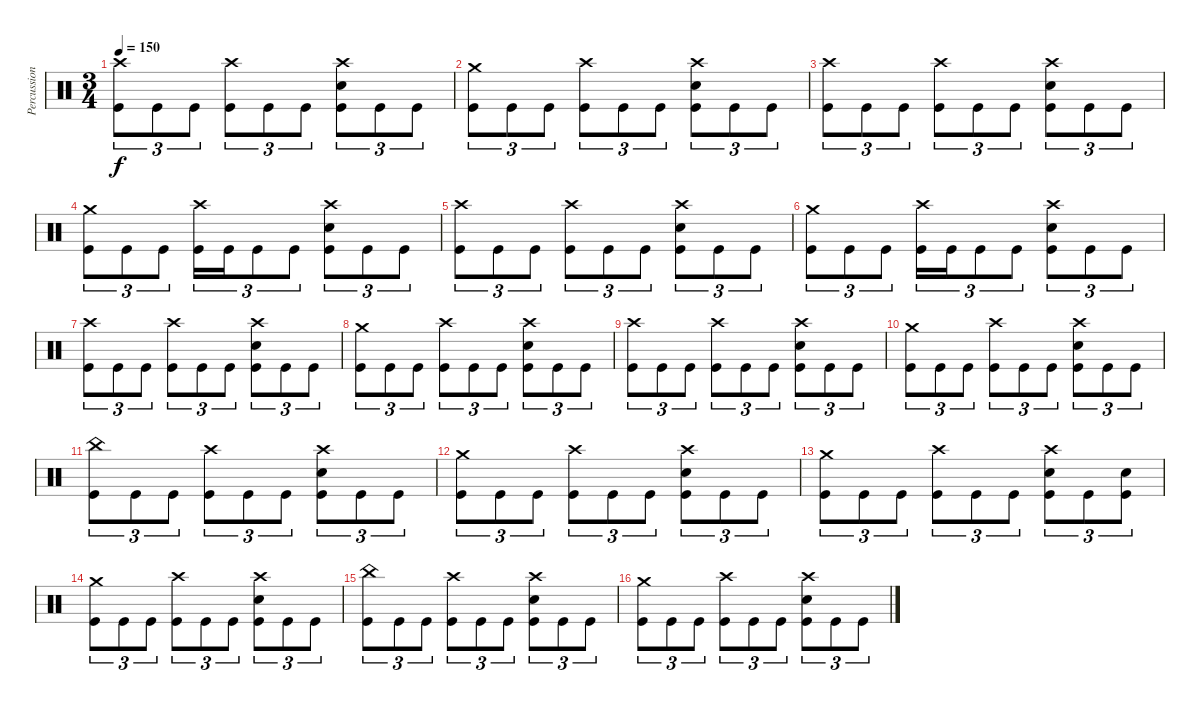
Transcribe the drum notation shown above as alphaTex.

\track ("Percussions" "Percussion") {instrument percussion}
\staff {score}
\articulation defaults
\ts (3 4)
\tempo 150
\clef neutral
\ks c
("Crash high (hit)" "Kick (hit)").8{tu (3 2) dy f} "Kick (hit)".8{tu (3 2)} "Kick (hit)".8{tu (3 2)} ("Crash high (hit)" "Kick (hit)").8{tu (3 2)} "Kick (hit)".8{tu (3 2)} "Kick (hit)".8{tu (3 2)} ("Crash high (hit)" "Snare (hit) 2" "Kick (hit)").8{tu (3 2)} "Kick (hit)".8{tu (3 2)} "Kick (hit)".8{tu (3 2)} |
("Crash medium (hit)" "Kick (hit)").8{tu (3 2)} "Kick (hit)".8{tu (3 2)} "Kick (hit)".8{tu (3 2)} ("Crash high (hit)" "Kick (hit)").8{tu (3 2)} "Kick (hit)".8{tu (3 2)} "Kick (hit)".8{tu (3 2)} ("Crash high (hit)" "Snare (hit) 2" "Kick (hit)").8{tu (3 2)} "Kick (hit)".8{tu (3 2)} "Kick (hit)".8{tu (3 2)} |
("Crash high (hit)" "Kick (hit)").8{tu (3 2)} "Kick (hit)".8{tu (3 2)} "Kick (hit)".8{tu (3 2)} ("Crash high (hit)" "Kick (hit)").8{tu (3 2)} "Kick (hit)".8{tu (3 2)} "Kick (hit)".8{tu (3 2)} ("Crash high (hit)" "Snare (hit) 2" "Kick (hit)").8{tu (3 2)} "Kick (hit)".8{tu (3 2)} "Kick (hit)".8{tu (3 2)} |
("Crash medium (hit)" "Kick (hit)").8{tu (3 2)} "Kick (hit)".8{tu (3 2)} "Kick (hit)".8{tu (3 2)} ("Crash high (hit)" "Kick (hit)").16{tu (3 2)} "Kick (hit)".16{tu (3 2)} "Kick (hit)".8{tu (3 2)} "Kick (hit)".8{tu (3 2)} ("Crash high (hit)" "Snare (hit) 2" "Kick (hit)").8{tu (3 2)} "Kick (hit)".8{tu (3 2)} "Kick (hit)".8{tu (3 2)} |
("Crash high (hit)" "Kick (hit)").8{tu (3 2)} "Kick (hit)".8{tu (3 2)} "Kick (hit)".8{tu (3 2)} ("Crash high (hit)" "Kick (hit)").8{tu (3 2)} "Kick (hit)".8{tu (3 2)} "Kick (hit)".8{tu (3 2)} ("Crash high (hit)" "Snare (hit) 2" "Kick (hit)").8{tu (3 2)} "Kick (hit)".8{tu (3 2)} "Kick (hit)".8{tu (3 2)} |
("Crash medium (hit)" "Kick (hit)").8{tu (3 2)} "Kick (hit)".8{tu (3 2)} "Kick (hit)".8{tu (3 2)} ("Crash high (hit)" "Kick (hit)").16{tu (3 2)} "Kick (hit)".16{tu (3 2)} "Kick (hit)".8{tu (3 2)} "Kick (hit)".8{tu (3 2)} ("Crash high (hit)" "Snare (hit) 2" "Kick (hit)").8{tu (3 2)} "Kick (hit)".8{tu (3 2)} "Kick (hit)".8{tu (3 2)} |
("Crash high (hit)" "Kick (hit)").8{tu (3 2)} "Kick (hit)".8{tu (3 2)} "Kick (hit)".8{tu (3 2)} ("Crash high (hit)" "Kick (hit)").8{tu (3 2)} "Kick (hit)".8{tu (3 2)} "Kick (hit)".8{tu (3 2)} ("Crash high (hit)" "Snare (hit) 2" "Kick (hit)").8{tu (3 2)} "Kick (hit)".8{tu (3 2)} "Kick (hit)".8{tu (3 2)} |
("Crash medium (hit)" "Kick (hit)").8{tu (3 2)} "Kick (hit)".8{tu (3 2)} "Kick (hit)".8{tu (3 2)} ("Crash high (hit)" "Kick (hit)").8{tu (3 2)} "Kick (hit)".8{tu (3 2)} "Kick (hit)".8{tu (3 2)} ("Crash high (hit)" "Snare (hit) 2" "Kick (hit)").8{tu (3 2)} "Kick (hit)".8{tu (3 2)} "Kick (hit)".8{tu (3 2)} |
("Crash high (hit)" "Kick (hit)").8{tu (3 2)} "Kick (hit)".8{tu (3 2)} "Kick (hit)".8{tu (3 2)} ("Crash high (hit)" "Kick (hit)").8{tu (3 2)} "Kick (hit)".8{tu (3 2)} "Kick (hit)".8{tu (3 2)} ("Crash high (hit)" "Snare (hit) 2" "Kick (hit)").8{tu (3 2)} "Kick (hit)".8{tu (3 2)} "Kick (hit)".8{tu (3 2)} |
("Crash medium (hit)" "Kick (hit)").8{tu (3 2)} "Kick (hit)".8{tu (3 2)} "Kick (hit)".8{tu (3 2)} ("Crash high (hit)" "Kick (hit)").8{tu (3 2)} "Kick (hit)".8{tu (3 2)} "Kick (hit)".8{tu (3 2)} ("Crash high (hit)" "Snare (hit) 2" "Kick (hit)").8{tu (3 2)} "Kick (hit)".8{tu (3 2)} "Kick (hit)".8{tu (3 2)} |
("China (hit)" "Kick (hit)").8{tu (3 2)} "Kick (hit)".8{tu (3 2)} "Kick (hit)".8{tu (3 2)} ("Crash high (hit)" "Kick (hit)").8{tu (3 2)} "Kick (hit)".8{tu (3 2)} "Kick (hit)".8{tu (3 2)} ("Crash high (hit)" "Snare (hit) 2" "Kick (hit)").8{tu (3 2)} "Kick (hit)".8{tu (3 2)} "Kick (hit)".8{tu (3 2)} |
("Crash medium (hit)" "Kick (hit)").8{tu (3 2)} "Kick (hit)".8{tu (3 2)} "Kick (hit)".8{tu (3 2)} ("Crash high (hit)" "Kick (hit)").8{tu (3 2)} "Kick (hit)".8{tu (3 2)} "Kick (hit)".8{tu (3 2)} ("Crash high (hit)" "Snare (hit) 2" "Kick (hit)").8{tu (3 2)} "Kick (hit)".8{tu (3 2)} "Kick (hit)".8{tu (3 2)} |
("Crash medium (hit)" "Kick (hit)").8{tu (3 2)} "Kick (hit)".8{tu (3 2)} "Kick (hit)".8{tu (3 2)} ("Crash high (hit)" "Kick (hit)").8{tu (3 2)} "Kick (hit)".8{tu (3 2)} "Kick (hit)".8{tu (3 2)} ("Crash high (hit)" "Snare (hit) 2" "Kick (hit)").8{tu (3 2)} "Kick (hit)".8{tu (3 2)} ("Snare (hit) 2" "Kick (hit)").8{tu (3 2)} |
("Crash medium (hit)" "Kick (hit)").8{tu (3 2)} "Kick (hit)".8{tu (3 2)} "Kick (hit)".8{tu (3 2)} ("Crash high (hit)" "Kick (hit)").8{tu (3 2)} "Kick (hit)".8{tu (3 2)} "Kick (hit)".8{tu (3 2)} ("Crash high (hit)" "Snare (hit) 2" "Kick (hit)").8{tu (3 2)} "Kick (hit)".8{tu (3 2)} "Kick (hit)".8{tu (3 2)} |
("China (hit)" "Kick (hit)").8{tu (3 2)} "Kick (hit)".8{tu (3 2)} "Kick (hit)".8{tu (3 2)} ("Crash high (hit)" "Kick (hit)").8{tu (3 2)} "Kick (hit)".8{tu (3 2)} "Kick (hit)".8{tu (3 2)} ("Crash high (hit)" "Snare (hit) 2" "Kick (hit)").8{tu (3 2)} "Kick (hit)".8{tu (3 2)} "Kick (hit)".8{tu (3 2)} |
("Crash medium (hit)" "Kick (hit)").8{tu (3 2)} "Kick (hit)".8{tu (3 2)} "Kick (hit)".8{tu (3 2)} ("Crash high (hit)" "Kick (hit)").8{tu (3 2)} "Kick (hit)".8{tu (3 2)} "Kick (hit)".8{tu (3 2)} ("Crash high (hit)" "Snare (hit) 2" "Kick (hit)").8{tu (3 2)} "Kick (hit)".8{tu (3 2)} "Kick (hit)".8{tu (3 2)}
